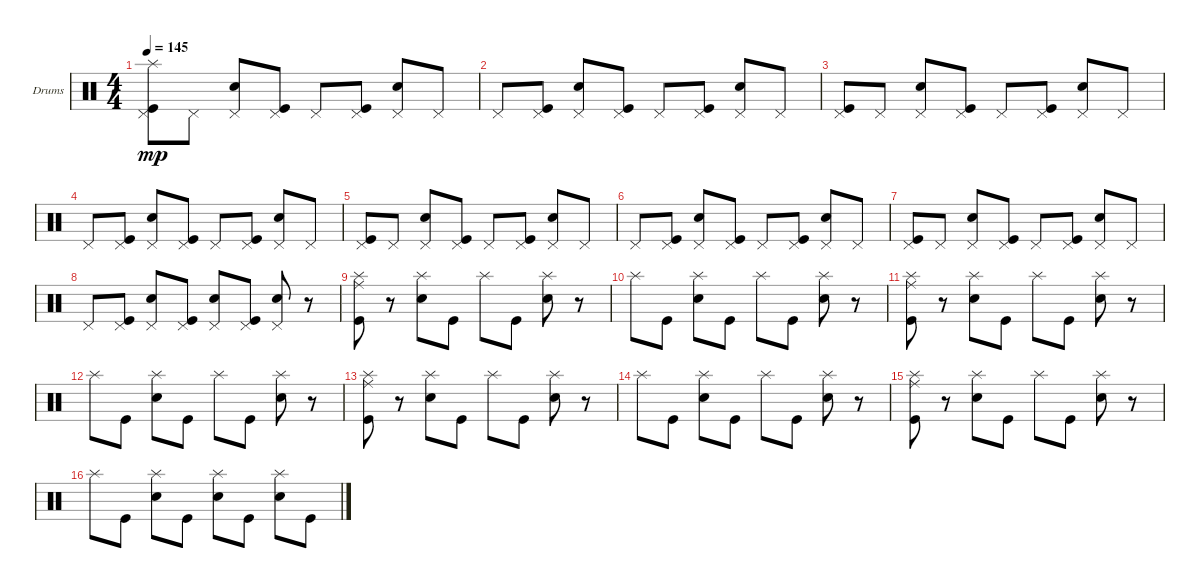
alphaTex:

\defaultSystemsLayout 4
\bracketExtendMode groupsimilarinstruments
\firstSystemTrackNameOrientation horizontal
\otherSystemsTrackNameOrientation horizontal
\track ("Drumkit" "Drums") {instrument percussion}
\staff {score}
\articulation defaults
\ts (4 4)
\tempo 145
\clef neutral
\ks c
("Pedal Hi-Hat (hit)" "Kick (hit)" "Splash (hit)").8{dy mp} "Pedal Hi-Hat (hit)".8 ("Pedal Hi-Hat (hit)" "Snare (hit) 2").8 ("Pedal Hi-Hat (hit)" "Kick (hit)").8 "Pedal Hi-Hat (hit)".8 ("Pedal Hi-Hat (hit)" "Kick (hit)").8 ("Pedal Hi-Hat (hit)" "Snare (hit) 2").8 "Pedal Hi-Hat (hit)".8 |
"Pedal Hi-Hat (hit)".8 ("Pedal Hi-Hat (hit)" "Kick (hit)").8 ("Pedal Hi-Hat (hit)" "Snare (hit) 2").8 ("Pedal Hi-Hat (hit)" "Kick (hit)").8 "Pedal Hi-Hat (hit)".8 ("Pedal Hi-Hat (hit)" "Kick (hit)").8 ("Pedal Hi-Hat (hit)" "Snare (hit) 2").8 "Pedal Hi-Hat (hit)".8 |
("Pedal Hi-Hat (hit)" "Kick (hit)").8 "Pedal Hi-Hat (hit)".8 ("Pedal Hi-Hat (hit)" "Snare (hit) 2").8 ("Pedal Hi-Hat (hit)" "Kick (hit)").8 "Pedal Hi-Hat (hit)".8 ("Pedal Hi-Hat (hit)" "Kick (hit)").8 ("Pedal Hi-Hat (hit)" "Snare (hit) 2").8 "Pedal Hi-Hat (hit)".8 |
"Pedal Hi-Hat (hit)".8 ("Pedal Hi-Hat (hit)" "Kick (hit)").8 ("Pedal Hi-Hat (hit)" "Snare (hit) 2").8 ("Pedal Hi-Hat (hit)" "Kick (hit)").8 "Pedal Hi-Hat (hit)".8 ("Pedal Hi-Hat (hit)" "Kick (hit)").8 ("Pedal Hi-Hat (hit)" "Snare (hit) 2").8 "Pedal Hi-Hat (hit)".8 |
("Pedal Hi-Hat (hit)" "Kick (hit)").8 "Pedal Hi-Hat (hit)".8 ("Pedal Hi-Hat (hit)" "Snare (hit) 2").8 ("Pedal Hi-Hat (hit)" "Kick (hit)").8 "Pedal Hi-Hat (hit)".8 ("Pedal Hi-Hat (hit)" "Kick (hit)").8 ("Pedal Hi-Hat (hit)" "Snare (hit) 2").8 "Pedal Hi-Hat (hit)".8 |
"Pedal Hi-Hat (hit)".8 ("Pedal Hi-Hat (hit)" "Kick (hit)").8 ("Pedal Hi-Hat (hit)" "Snare (hit) 2").8 ("Pedal Hi-Hat (hit)" "Kick (hit)").8 "Pedal Hi-Hat (hit)".8 ("Pedal Hi-Hat (hit)" "Kick (hit)").8 ("Pedal Hi-Hat (hit)" "Snare (hit) 2").8 "Pedal Hi-Hat (hit)".8 |
("Pedal Hi-Hat (hit)" "Kick (hit)").8 "Pedal Hi-Hat (hit)".8 ("Pedal Hi-Hat (hit)" "Snare (hit) 2").8 ("Pedal Hi-Hat (hit)" "Kick (hit)").8 "Pedal Hi-Hat (hit)".8 ("Pedal Hi-Hat (hit)" "Kick (hit)").8 ("Pedal Hi-Hat (hit)" "Snare (hit) 2").8 "Pedal Hi-Hat (hit)".8 |
"Pedal Hi-Hat (hit)".8 ("Pedal Hi-Hat (hit)" "Kick (hit)").8 ("Pedal Hi-Hat (hit)" "Snare (hit) 2").8 ("Pedal Hi-Hat (hit)" "Kick (hit)").8 ("Pedal Hi-Hat (hit)" "Snare (hit) 2").8 ("Pedal Hi-Hat (hit)" "Kick (hit)").8 ("Pedal Hi-Hat (hit)" "Snare (hit) 2").8 r.8 |
("Kick (hit)" "Ride (middle)" "Splash (hit)").8 r.8 ("Snare (hit) 2" "Splash (hit)").8 "Kick (hit)".8 "Splash (hit)".8 "Kick (hit)".8 ("Snare (hit) 2" "Splash (hit)").8 r.8 |
"Splash (hit)".8 "Kick (hit)".8 ("Snare (hit) 2" "Splash (hit)").8 "Kick (hit)".8 "Splash (hit)".8 "Kick (hit)".8 ("Snare (hit) 2" "Splash (hit)").8 r.8 |
("Kick (hit)" "Ride (middle)" "Splash (hit)").8 r.8 ("Snare (hit) 2" "Splash (hit)").8 "Kick (hit)".8 "Splash (hit)".8 "Kick (hit)".8 ("Snare (hit) 2" "Splash (hit)").8 r.8 |
"Splash (hit)".8 "Kick (hit)".8 ("Snare (hit) 2" "Splash (hit)").8 "Kick (hit)".8 "Splash (hit)".8 "Kick (hit)".8 ("Snare (hit) 2" "Splash (hit)").8 r.8 |
("Kick (hit)" "Ride (middle)" "Splash (hit)").8 r.8 ("Snare (hit) 2" "Splash (hit)").8 "Kick (hit)".8 "Splash (hit)".8 "Kick (hit)".8 ("Snare (hit) 2" "Splash (hit)").8 r.8 |
"Splash (hit)".8 "Kick (hit)".8 ("Snare (hit) 2" "Splash (hit)").8 "Kick (hit)".8 "Splash (hit)".8 "Kick (hit)".8 ("Snare (hit) 2" "Splash (hit)").8 r.8 |
("Kick (hit)" "Ride (middle)" "Splash (hit)").8 r.8 ("Snare (hit) 2" "Splash (hit)").8 "Kick (hit)".8 "Splash (hit)".8 "Kick (hit)".8 ("Snare (hit) 2" "Splash (hit)").8 r.8 |
"Splash (hit)".8 "Kick (hit)".8 ("Snare (hit) 2" "Splash (hit)").8 "Kick (hit)".8 ("Splash (hit)" "Snare (hit) 2").8 "Kick (hit)".8 ("Snare (hit) 2" "Splash (hit)").8 "Kick (hit)".8
